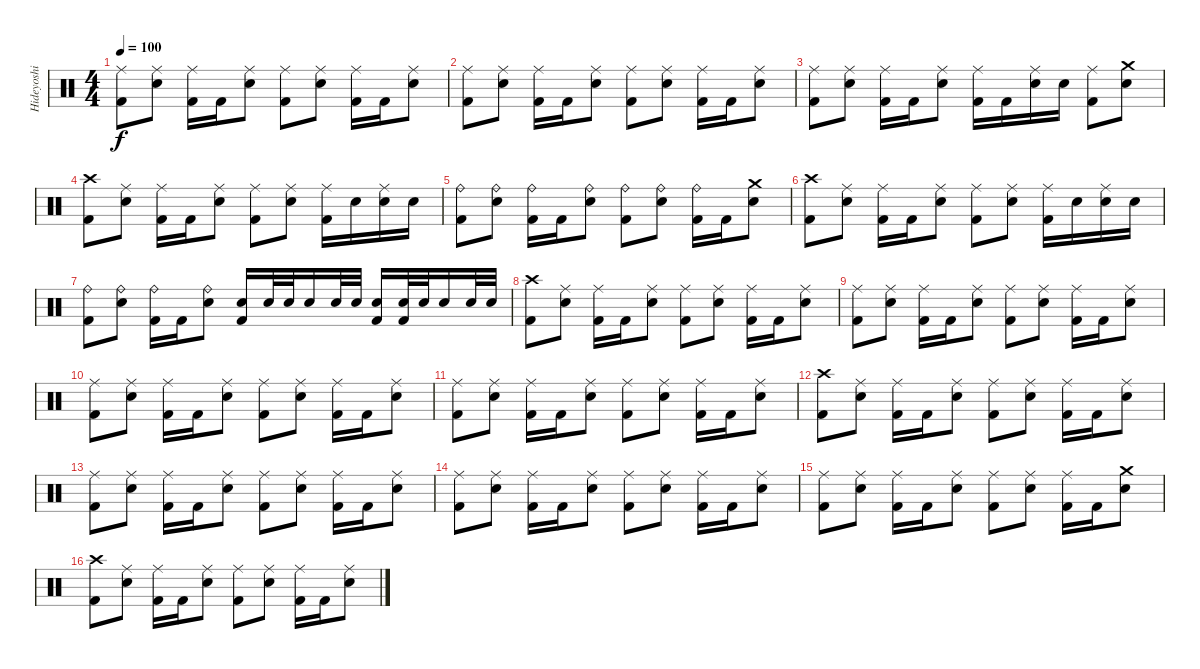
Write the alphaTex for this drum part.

\track ("Hideyoshi" "Hideyoshi") {instrument percussion}
\staff {score}
\articulation defaults
\ts (4 4)
\tempo 100
\clef neutral
\ks c
("Ride (middle)" "Kick (hit) 2").8{dy f} ("Snare (hit) 2" "Ride (middle)").8 ("Kick (hit) 2" "Ride (middle)").16 "Kick (hit) 2".16 ("Snare (hit) 2" "Ride (middle)").8 ("Kick (hit) 2" "Ride (middle)").8 ("Snare (hit) 2" "Ride (middle)").8 ("Kick (hit) 2" "Ride (middle)").16 "Kick (hit) 2".16 ("Snare (hit) 2" "Ride (middle)").8 |
("Ride (middle)" "Kick (hit) 2").8 ("Snare (hit) 2" "Ride (middle)").8 ("Kick (hit) 2" "Ride (middle)").16 "Kick (hit) 2".16 ("Snare (hit) 2" "Ride (middle)").8 ("Kick (hit) 2" "Ride (middle)").8 ("Snare (hit) 2" "Ride (middle)").8 ("Kick (hit) 2" "Ride (middle)").16 "Kick (hit) 2".16 ("Snare (hit) 2" "Ride (middle)").8 |
("Ride (middle)" "Kick (hit) 2").8 ("Snare (hit) 2" "Ride (middle)").8 ("Kick (hit) 2" "Ride (middle)").16 "Kick (hit) 2".16 ("Snare (hit) 2" "Ride (middle)").8 ("Kick (hit) 2" "Ride (middle)").16 "Kick (hit) 2".16 ("Snare (hit) 2" "Ride (middle)").16 "Snare (hit) 2".16 ("Kick (hit) 2" "Ride (middle)").8 ("Crash medium (hit)" "Snare (hit) 2").8 |
("Crash high (hit)" "Kick (hit) 2").8 ("Snare (hit) 2" "Ride (middle)").8 ("Kick (hit) 2" "Ride (middle)").16 "Kick (hit) 2".16 ("Snare (hit) 2" "Ride (middle)").8 ("Kick (hit) 2" "Ride (middle)").8 ("Snare (hit) 2" "Ride (middle)").8 ("Kick (hit) 2" "Ride (middle)").16 "Snare (hit) 2".16 ("Snare (hit) 2" "Ride (middle)").16 "Snare (hit) 2".16 |
("Kick (hit) 2" "Ride (bell)").8 ("Snare (hit) 2" "Ride (bell)").8 ("Kick (hit) 2" "Ride (bell)").16 "Kick (hit) 2".16 ("Snare (hit) 2" "Ride (bell)").8 ("Kick (hit) 2" "Ride (bell)").8 ("Snare (hit) 2" "Ride (bell)").8 ("Kick (hit) 2" "Ride (bell)").16 "Kick (hit) 2".16 ("Crash medium (hit)" "Snare (hit) 2").8 |
("Crash high (hit)" "Kick (hit) 2").8 ("Snare (hit) 2" "Ride (middle)").8 ("Kick (hit) 2" "Ride (middle)").16 "Kick (hit) 2".16 ("Snare (hit) 2" "Ride (middle)").8 ("Kick (hit) 2" "Ride (middle)").8 ("Snare (hit) 2" "Ride (middle)").8 ("Kick (hit) 2" "Ride (middle)").16 "Snare (hit) 2".16 ("Snare (hit) 2" "Ride (middle)").16 "Snare (hit) 2".16 |
("Kick (hit) 2" "Ride (bell)").8 ("Ride (bell)" "Snare (hit) 2").8 ("Ride (bell)" "Kick (hit) 2").16 "Kick (hit) 2".16 ("Ride (bell)" "Snare (hit) 2").8 ("Kick (hit) 2" "Snare (hit) 2").16 "Snare (hit) 2".32 "Snare (hit) 2".32 "Snare (hit) 2".16 "Snare (hit) 2".32 "Snare (hit) 2".32 ("Snare (hit) 2" "Kick (hit) 2").16 ("Snare (hit) 2" "Kick (hit) 2").32 "Snare (hit) 2".32 "Snare (hit) 2".16 "Snare (hit) 2".32 "Snare (hit) 2".32 |
("Crash high (hit)" "Kick (hit) 2").8 ("Snare (hit) 2" "Ride (middle)").8 ("Kick (hit) 2" "Ride (middle)").16 "Kick (hit) 2".16 ("Snare (hit) 2" "Ride (middle)").8 ("Kick (hit) 2" "Ride (middle)").8 ("Snare (hit) 2" "Ride (middle)").8 ("Kick (hit) 2" "Ride (middle)").16 "Kick (hit) 2".16 ("Snare (hit) 2" "Ride (middle)").8 |
("Ride (middle)" "Kick (hit) 2").8 ("Snare (hit) 2" "Ride (middle)").8 ("Kick (hit) 2" "Ride (middle)").16 "Kick (hit) 2".16 ("Snare (hit) 2" "Ride (middle)").8 ("Kick (hit) 2" "Ride (middle)").8 ("Snare (hit) 2" "Ride (middle)").8 ("Kick (hit) 2" "Ride (middle)").16 "Kick (hit) 2".16 ("Snare (hit) 2" "Ride (middle)").8 |
("Kick (hit) 2" "Ride (middle)").8 ("Snare (hit) 2" "Ride (middle)").8 ("Kick (hit) 2" "Ride (middle)").16 "Kick (hit) 2".16 ("Ride (middle)" "Snare (hit) 2").8 ("Ride (middle)" "Kick (hit) 2").8 ("Snare (hit) 2" "Ride (middle)").8 ("Kick (hit) 2" "Ride (middle)").16 "Kick (hit) 2".16 ("Ride (middle)" "Snare (hit) 2").8 |
("Kick (hit) 2" "Ride (middle)").8 ("Ride (middle)" "Snare (hit) 2").8 ("Ride (middle)" "Kick (hit) 2").16 "Kick (hit) 2".16 ("Snare (hit) 2" "Ride (middle)").8 ("Kick (hit) 2" "Ride (middle)").8 ("Snare (hit) 2" "Ride (middle)").8 ("Kick (hit) 2" "Ride (middle)").16 "Kick (hit) 2".16 ("Snare (hit) 2" "Ride (middle)").8 |
("Crash high (hit)" "Kick (hit) 2").8 ("Snare (hit) 2" "Ride (middle)").8 ("Kick (hit) 2" "Ride (middle)").16 "Kick (hit) 2".16 ("Snare (hit) 2" "Ride (middle)").8 ("Kick (hit) 2" "Ride (middle)").8 ("Snare (hit) 2" "Ride (middle)").8 ("Kick (hit) 2" "Ride (middle)").16 "Kick (hit) 2".16 ("Ride (middle)" "Snare (hit) 2").8 |
("Ride (middle)" "Kick (hit) 2").8 ("Snare (hit) 2" "Ride (middle)").8 ("Kick (hit) 2" "Ride (middle)").16 "Kick (hit) 2".16 ("Snare (hit) 2" "Ride (middle)").8 ("Kick (hit) 2" "Ride (middle)").8 ("Snare (hit) 2" "Ride (middle)").8 ("Kick (hit) 2" "Ride (middle)").16 "Kick (hit) 2".16 ("Snare (hit) 2" "Ride (middle)").8 |
("Kick (hit) 2" "Ride (middle)").8 ("Snare (hit) 2" "Ride (middle)").8 ("Kick (hit) 2" "Ride (middle)").16 "Kick (hit) 2".16 ("Ride (middle)" "Snare (hit) 2").8 ("Ride (middle)" "Kick (hit) 2").8 ("Snare (hit) 2" "Ride (middle)").8 ("Kick (hit) 2" "Ride (middle)").16 "Kick (hit) 2".16 ("Ride (middle)" "Snare (hit) 2").8 |
("Kick (hit) 2" "Ride (middle)").8 ("Ride (middle)" "Snare (hit) 2").8 ("Ride (middle)" "Kick (hit) 2").16 "Kick (hit) 2".16 ("Snare (hit) 2" "Ride (middle)").8 ("Kick (hit) 2" "Ride (middle)").8 ("Snare (hit) 2" "Ride (middle)").8 ("Kick (hit) 2" "Ride (middle)").16 "Kick (hit) 2".16 ("Crash medium (hit)" "Snare (hit) 2").8 |
("Crash high (hit)" "Kick (hit) 2").8 ("Snare (hit) 2" "Ride (middle)").8 ("Kick (hit) 2" "Ride (middle)").16 "Kick (hit) 2".16 ("Snare (hit) 2" "Ride (middle)").8 ("Kick (hit) 2" "Ride (middle)").8 ("Snare (hit) 2" "Ride (middle)").8 ("Kick (hit) 2" "Ride (middle)").16 "Kick (hit) 2".16 ("Ride (middle)" "Snare (hit) 2").8
